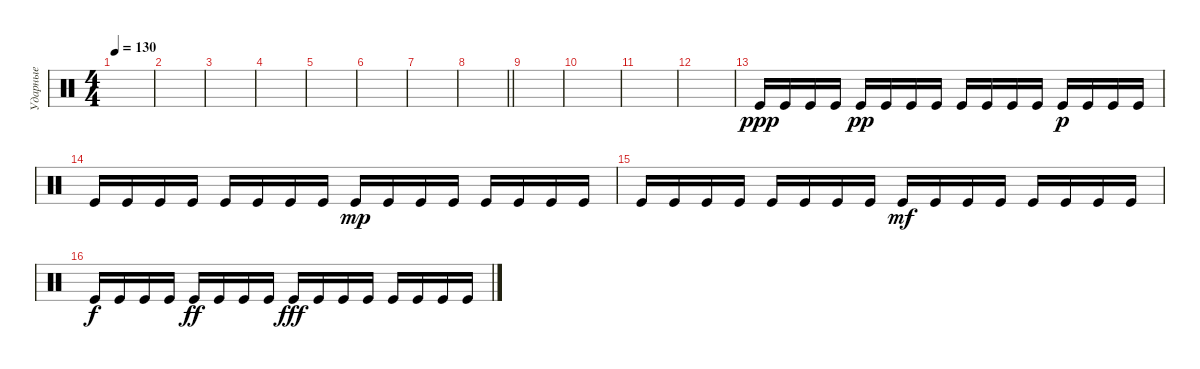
\track ("Ударные" "Ударные") {instrument percussion}
\staff {score}
\articulation defaults
\ts (4 4)
\tempo 130
\clef neutral
\ks c
|
|
|
|
|
|
|
\barLineRight lightlight
|
|
|
|
|
"Kick (hit)".16{dy ppp} "Kick (hit)".16 "Kick (hit)".16 "Kick (hit)".16 "Kick (hit)".16{dy pp} "Kick (hit)".16 "Kick (hit)".16 "Kick (hit)".16 "Kick (hit)".16 "Kick (hit)".16 "Kick (hit)".16 "Kick (hit)".16 "Kick (hit)".16{dy p} "Kick (hit)".16 "Kick (hit)".16 "Kick (hit)".16 |
"Kick (hit)".16 "Kick (hit)".16 "Kick (hit)".16 "Kick (hit)".16 "Kick (hit)".16 "Kick (hit)".16 "Kick (hit)".16 "Kick (hit)".16 "Kick (hit)".16{dy mp} "Kick (hit)".16 "Kick (hit)".16 "Kick (hit)".16 "Kick (hit)".16 "Kick (hit)".16 "Kick (hit)".16 "Kick (hit)".16 |
"Kick (hit)".16 "Kick (hit)".16 "Kick (hit)".16 "Kick (hit)".16 "Kick (hit)".16 "Kick (hit)".16 "Kick (hit)".16 "Kick (hit)".16 "Kick (hit)".16{dy mf} "Kick (hit)".16 "Kick (hit)".16 "Kick (hit)".16 "Kick (hit)".16 "Kick (hit)".16 "Kick (hit)".16 "Kick (hit)".16 |
"Kick (hit)".16{dy f} "Kick (hit)".16 "Kick (hit)".16 "Kick (hit)".16 "Kick (hit)".16{dy ff} "Kick (hit)".16 "Kick (hit)".16 "Kick (hit)".16 "Kick (hit)".16{dy fff} "Kick (hit)".16 "Kick (hit)".16 "Kick (hit)".16 "Kick (hit)".16 "Kick (hit)".16 "Kick (hit)".16 "Kick (hit)".16
